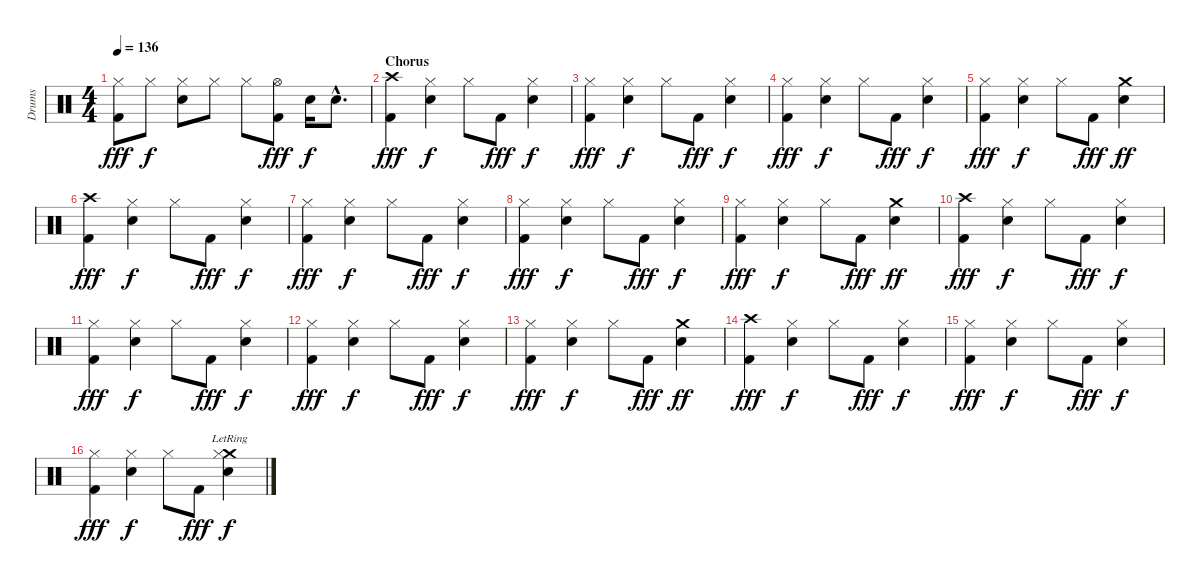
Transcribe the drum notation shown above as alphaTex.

\track ("Drums" "Drums") {instrument percussion}
\staff {score}
\articulation defaults
\ts (4 4)
\tempo 136
\clef neutral
\ks c
("Hi-Hat (closed)" "Kick (hit) 2").8{txt " " dy fff} "Hi-Hat (closed)".8{dy f} ("Hi-Hat (closed)" "Snare (hit) 2").8 "Hi-Hat (closed)".8 "Hi-Hat (closed)".8 ("Hi-Hat (open)" "Kick (hit) 2").8{dy fff} "Snare (hit) 2".16{dy f} "Snare (hit) 2"{hac}.8{d} |
\section ("" "Chorus")
("Crash high (hit)" "Kick (hit) 2").4{txt " " dy fff} ("Hi-Hat (closed)" "Snare (hit) 2").4{dy f} "Hi-Hat (closed)".8 "Kick (hit) 2".8{dy fff} ("Hi-Hat (closed)" "Snare (hit) 2").4{dy f} |
("Hi-Hat (closed)" "Kick (hit) 2").4{txt " " dy fff} ("Hi-Hat (closed)" "Snare (hit) 2").4{dy f} "Hi-Hat (closed)".8 "Kick (hit) 2".8{dy fff} ("Hi-Hat (closed)" "Snare (hit) 2").4{dy f} |
("Hi-Hat (closed)" "Kick (hit) 2").4{txt " " dy fff} ("Hi-Hat (closed)" "Snare (hit) 2").4{dy f} "Hi-Hat (closed)".8 "Kick (hit) 2".8{dy fff} ("Hi-Hat (closed)" "Snare (hit) 2").4{dy f} |
("Hi-Hat (closed)" "Kick (hit) 2").4{txt " " dy fff} ("Hi-Hat (closed)" "Snare (hit) 2").4{dy f} "Hi-Hat (closed)".8 "Kick (hit) 2".8{dy fff} ("Crash medium (hit)" "Snare (hit) 2").4{dy ff} |
("Crash high (hit)" "Kick (hit) 2").4{txt " " dy fff} ("Hi-Hat (closed)" "Snare (hit) 2").4{dy f} "Hi-Hat (closed)".8 "Kick (hit) 2".8{dy fff} ("Hi-Hat (closed)" "Snare (hit) 2").4{dy f} |
("Hi-Hat (closed)" "Kick (hit) 2").4{txt " " dy fff} ("Hi-Hat (closed)" "Snare (hit) 2").4{dy f} "Hi-Hat (closed)".8 "Kick (hit) 2".8{dy fff} ("Hi-Hat (closed)" "Snare (hit) 2").4{dy f} |
("Hi-Hat (closed)" "Kick (hit) 2").4{txt " " dy fff} ("Hi-Hat (closed)" "Snare (hit) 2").4{dy f} "Hi-Hat (closed)".8 "Kick (hit) 2".8{dy fff} ("Hi-Hat (closed)" "Snare (hit) 2").4{dy f} |
("Hi-Hat (closed)" "Kick (hit) 2").4{txt " " dy fff} ("Hi-Hat (closed)" "Snare (hit) 2").4{dy f} "Hi-Hat (closed)".8 "Kick (hit) 2".8{dy fff} ("Crash medium (hit)" "Snare (hit) 2").4{dy ff} |
("Crash high (hit)" "Kick (hit) 2").4{txt " " dy fff} ("Hi-Hat (closed)" "Snare (hit) 2").4{dy f} "Hi-Hat (closed)".8 "Kick (hit) 2".8{dy fff} ("Hi-Hat (closed)" "Snare (hit) 2").4{dy f} |
("Hi-Hat (closed)" "Kick (hit) 2").4{txt " " dy fff} ("Hi-Hat (closed)" "Snare (hit) 2").4{dy f} "Hi-Hat (closed)".8 "Kick (hit) 2".8{dy fff} ("Hi-Hat (closed)" "Snare (hit) 2").4{dy f} |
("Hi-Hat (closed)" "Kick (hit) 2").4{txt " " dy fff} ("Hi-Hat (closed)" "Snare (hit) 2").4{dy f} "Hi-Hat (closed)".8 "Kick (hit) 2".8{dy fff} ("Hi-Hat (closed)" "Snare (hit) 2").4{dy f} |
("Hi-Hat (closed)" "Kick (hit) 2").4{txt " " dy fff} ("Hi-Hat (closed)" "Snare (hit) 2").4{dy f} "Hi-Hat (closed)".8 "Kick (hit) 2".8{dy fff} ("Crash medium (hit)" "Snare (hit) 2").4{dy ff} |
("Crash high (hit)" "Kick (hit) 2").4{txt " " dy fff} ("Hi-Hat (closed)" "Snare (hit) 2").4{dy f} "Hi-Hat (closed)".8 "Kick (hit) 2".8{dy fff} ("Hi-Hat (closed)" "Snare (hit) 2").4{dy f} |
("Hi-Hat (closed)" "Kick (hit) 2").4{txt " " dy fff} ("Hi-Hat (closed)" "Snare (hit) 2").4{dy f} "Hi-Hat (closed)".8 "Kick (hit) 2".8{dy fff} ("Hi-Hat (closed)" "Snare (hit) 2").4{dy f} |
("Hi-Hat (closed)" "Kick (hit) 2").4{txt " " dy fff} ("Hi-Hat (closed)" "Snare (hit) 2").4{dy f} "Hi-Hat (closed)".8 "Kick (hit) 2".8{dy fff} ("Crash medium (hit)"{lr} "Hi-Hat (closed)" "Snare (hit) 2").4{dy f}
